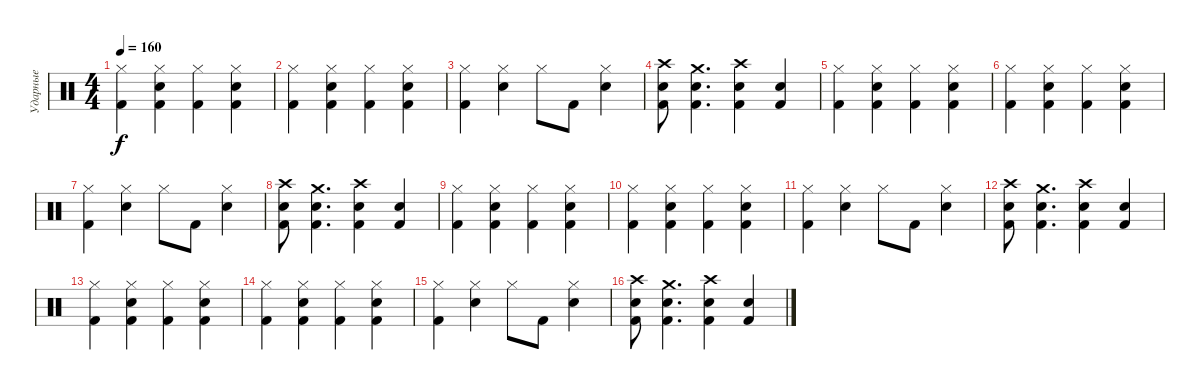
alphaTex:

\track ("Ударные" "Ударные") {instrument percussion}
\staff {score}
\articulation defaults
\ts (4 4)
\tempo 160
\clef neutral
\ks c
("Hi-Hat (closed)" "Kick (hit) 2").4{dy f} ("Hi-Hat (closed)" "Snare (hit) 2" "Kick (hit) 2").4 ("Hi-Hat (closed)" "Kick (hit) 2").4 ("Hi-Hat (closed)" "Snare (hit) 2" "Kick (hit) 2").4 |
("Hi-Hat (closed)" "Kick (hit) 2").4 ("Hi-Hat (closed)" "Snare (hit) 2" "Kick (hit) 2").4 ("Hi-Hat (closed)" "Kick (hit) 2").4 ("Hi-Hat (closed)" "Snare (hit) 2" "Kick (hit) 2").4 |
("Hi-Hat (closed)" "Kick (hit) 2").4 ("Hi-Hat (closed)" "Snare (hit) 2").4 "Hi-Hat (closed)".8 "Kick (hit) 2".8 ("Hi-Hat (closed)" "Snare (hit) 2").4 |
("Crash high (hit)" "Snare (hit) 2" "Kick (hit) 2").8 ("Crash medium (hit)" "Snare (hit) 2" "Kick (hit) 2").4{d} ("Crash high (hit)" "Snare (hit) 2" "Kick (hit) 2").4 ("Snare (hit) 2" "Kick (hit) 2").4 |
("Hi-Hat (closed)" "Kick (hit) 2").4 ("Hi-Hat (closed)" "Snare (hit) 2" "Kick (hit) 2").4 ("Hi-Hat (closed)" "Kick (hit) 2").4 ("Hi-Hat (closed)" "Snare (hit) 2" "Kick (hit) 2").4 |
("Hi-Hat (closed)" "Kick (hit) 2").4 ("Hi-Hat (closed)" "Snare (hit) 2" "Kick (hit) 2").4 ("Hi-Hat (closed)" "Kick (hit) 2").4 ("Hi-Hat (closed)" "Snare (hit) 2" "Kick (hit) 2").4 |
("Hi-Hat (closed)" "Kick (hit) 2").4 ("Hi-Hat (closed)" "Snare (hit) 2").4 "Hi-Hat (closed)".8 "Kick (hit) 2".8 ("Hi-Hat (closed)" "Snare (hit) 2").4 |
("Crash high (hit)" "Snare (hit) 2" "Kick (hit) 2").8 ("Crash medium (hit)" "Snare (hit) 2" "Kick (hit) 2").4{d} ("Crash high (hit)" "Snare (hit) 2" "Kick (hit) 2").4 ("Snare (hit) 2" "Kick (hit) 2").4 |
("Hi-Hat (closed)" "Kick (hit) 2").4 ("Hi-Hat (closed)" "Snare (hit) 2" "Kick (hit) 2").4 ("Hi-Hat (closed)" "Kick (hit) 2").4 ("Hi-Hat (closed)" "Snare (hit) 2" "Kick (hit) 2").4 |
("Hi-Hat (closed)" "Kick (hit) 2").4 ("Hi-Hat (closed)" "Snare (hit) 2" "Kick (hit) 2").4 ("Hi-Hat (closed)" "Kick (hit) 2").4 ("Hi-Hat (closed)" "Snare (hit) 2" "Kick (hit) 2").4 |
("Hi-Hat (closed)" "Kick (hit) 2").4 ("Hi-Hat (closed)" "Snare (hit) 2").4 "Hi-Hat (closed)".8 "Kick (hit) 2".8 ("Hi-Hat (closed)" "Snare (hit) 2").4 |
("Crash high (hit)" "Snare (hit) 2" "Kick (hit) 2").8 ("Crash medium (hit)" "Snare (hit) 2" "Kick (hit) 2").4{d} ("Crash high (hit)" "Snare (hit) 2" "Kick (hit) 2").4 ("Snare (hit) 2" "Kick (hit) 2").4 |
("Hi-Hat (closed)" "Kick (hit) 2").4 ("Hi-Hat (closed)" "Snare (hit) 2" "Kick (hit) 2").4 ("Hi-Hat (closed)" "Kick (hit) 2").4 ("Hi-Hat (closed)" "Snare (hit) 2" "Kick (hit) 2").4 |
("Hi-Hat (closed)" "Kick (hit) 2").4 ("Hi-Hat (closed)" "Snare (hit) 2" "Kick (hit) 2").4 ("Hi-Hat (closed)" "Kick (hit) 2").4 ("Hi-Hat (closed)" "Snare (hit) 2" "Kick (hit) 2").4 |
("Hi-Hat (closed)" "Kick (hit) 2").4 ("Hi-Hat (closed)" "Snare (hit) 2").4 "Hi-Hat (closed)".8 "Kick (hit) 2".8 ("Hi-Hat (closed)" "Snare (hit) 2").4 |
("Crash high (hit)" "Snare (hit) 2" "Kick (hit) 2").8 ("Crash medium (hit)" "Snare (hit) 2" "Kick (hit) 2").4{d} ("Crash high (hit)" "Snare (hit) 2" "Kick (hit) 2").4 ("Snare (hit) 2" "Kick (hit) 2").4
